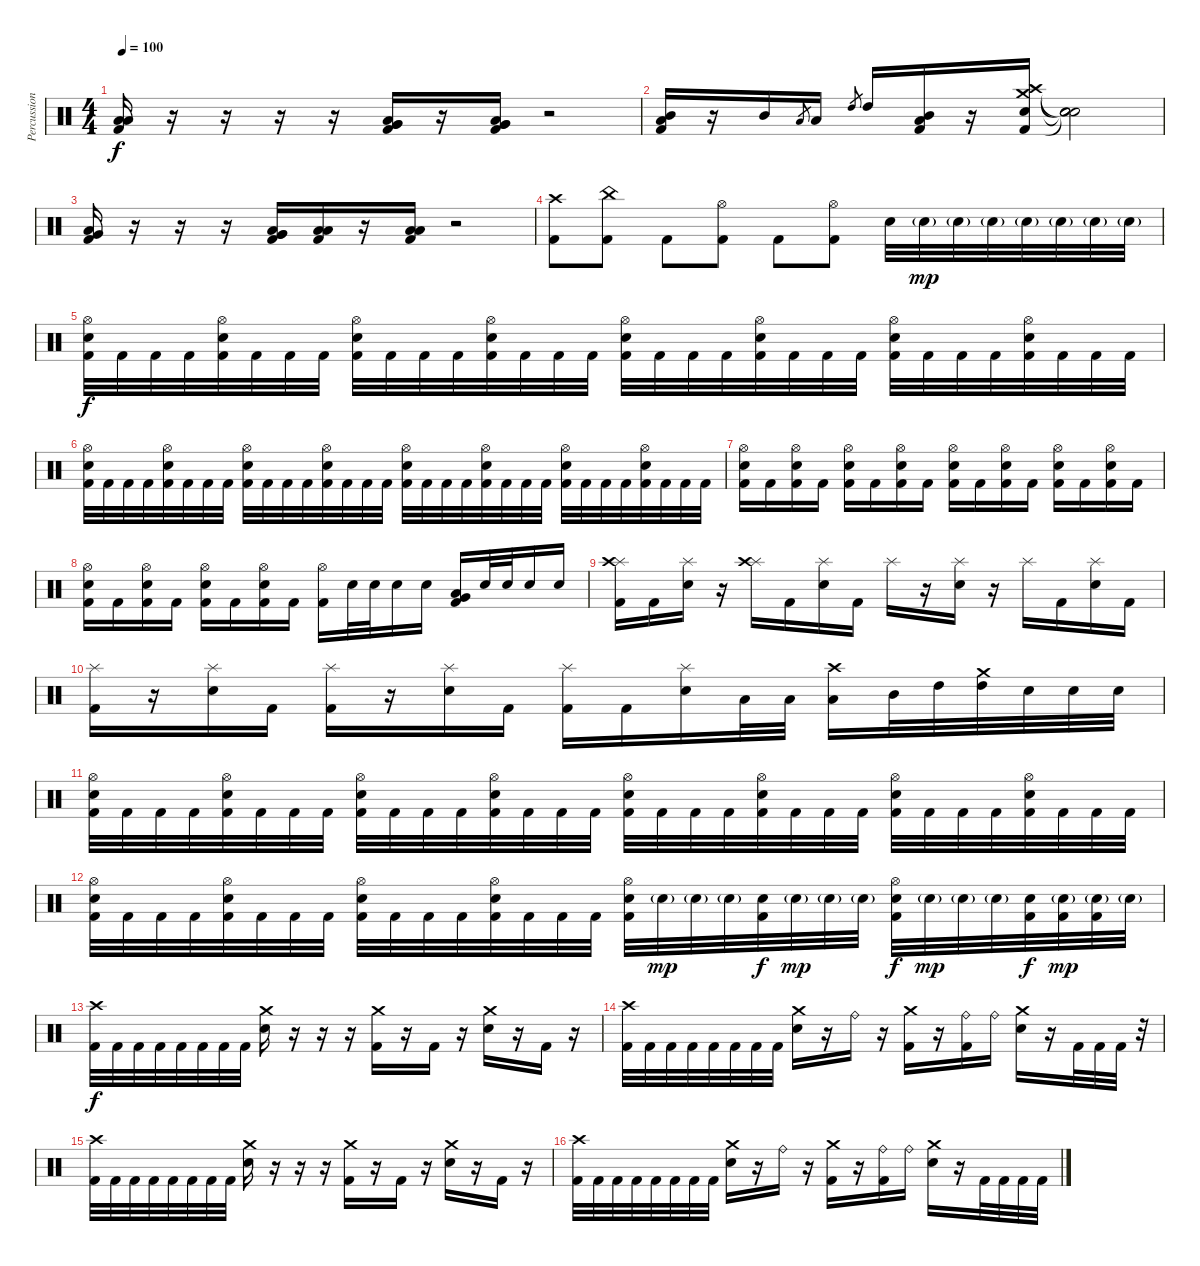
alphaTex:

\track ("Percussion" "Percussion") {instrument percussion}
\staff {score}
\articulation defaults
\ts (4 4)
\tempo 100
\clef neutral
\ks c
("Low Floor Tom (hit)" "Low Tom (hit)" "Kick (hit) 2").16{dy f} r.16 r.16 r.16 r.16 ("Very Low Tom (hit)" "Very Low Tom (hit)" "Low Tom (hit)" "Kick (hit) 2").16 r.16 ("Very Low Tom (hit)" "Very Low Tom (hit)" "Low Tom (hit)" "Kick (hit) 2").16 r.2 |
("Mid Tom (hit)" "Low Tom (hit)" "Kick (hit) 2").16 r.16 "Mid Tom (hit)".16 "Low Tom (hit)".8{gr} "Low Tom (hit)".16 "High Tom (hit)".8{gr} "High Tom (hit)".16 ("Mid Tom (hit)" "Low Tom (hit)" "Kick (hit) 2").16 r.16 ("Crash medium (hit)" "Crash high (hit)" "Electric Snare (hit)" "Kick (hit) 2").16 ("Snare (hit)"{t} "Snare (hit)"{t} "Snare (hit)"{t} "Snare (hit)"{t}).2 |
("Very Low Tom (hit)" "Low Tom (hit)" "Kick (hit) 2").16 r.16 r.16 r.16 ("Very Low Tom (hit)" "Very Low Tom (hit)" "Low Tom (hit)" "Kick (hit) 2").16 ("Low Floor Tom (hit)" "Low Tom (hit)" "Kick (hit) 2").16 r.16 ("Low Floor Tom (hit)" "Low Tom (hit)" "Kick (hit) 2").16 r.2 |
("Crash high (hit)" "Kick (hit) 2").8 ("China (hit)" "Kick (hit) 2").8 "Kick (hit) 2".8 ("Hi-Hat (open)" "Kick (hit) 2").8 "Kick (hit) 2".8 ("Hi-Hat (open)" "Kick (hit) 2").8 "Electric Snare (hit)".32 "Electric Snare (hit)"{g}.32{dy mp} "Electric Snare (hit)"{g}.32 "Electric Snare (hit)"{g}.32 "Electric Snare (hit)"{g}.32 "Electric Snare (hit)"{g}.32 "Electric Snare (hit)"{g}.32 "Electric Snare (hit)"{g}.32 |
("Hi-Hat (open)" "Electric Snare (hit)" "Kick (hit) 2").32{dy f} "Kick (hit) 2".32 "Kick (hit) 2".32 "Kick (hit) 2".32 ("Hi-Hat (open)" "Electric Snare (hit)" "Kick (hit) 2").32 "Kick (hit) 2".32 "Kick (hit) 2".32 "Kick (hit) 2".32 ("Hi-Hat (open)" "Electric Snare (hit)" "Kick (hit) 2").32 "Kick (hit) 2".32 "Kick (hit) 2".32 "Kick (hit) 2".32 ("Hi-Hat (open)" "Electric Snare (hit)" "Kick (hit) 2").32 "Kick (hit) 2".32 "Kick (hit) 2".32 "Kick (hit) 2".32 ("Hi-Hat (open)" "Electric Snare (hit)" "Kick (hit) 2").32 "Kick (hit) 2".32 "Kick (hit) 2".32 "Kick (hit) 2".32 ("Hi-Hat (open)" "Electric Snare (hit)" "Kick (hit) 2").32 "Kick (hit) 2".32 "Kick (hit) 2".32 "Kick (hit) 2".32 ("Hi-Hat (open)" "Electric Snare (hit)" "Kick (hit) 2").32 "Kick (hit) 2".32 "Kick (hit) 2".32 "Kick (hit) 2".32 ("Hi-Hat (open)" "Electric Snare (hit)" "Kick (hit) 2").32 "Kick (hit) 2".32 "Kick (hit) 2".32 "Kick (hit) 2".32 |
("Hi-Hat (open)" "Electric Snare (hit)" "Kick (hit) 2").32 "Kick (hit) 2".32 "Kick (hit) 2".32 "Kick (hit) 2".32 ("Hi-Hat (open)" "Electric Snare (hit)" "Kick (hit) 2").32 "Kick (hit) 2".32 "Kick (hit) 2".32 "Kick (hit) 2".32 ("Hi-Hat (open)" "Electric Snare (hit)" "Kick (hit) 2").32 "Kick (hit) 2".32 "Kick (hit) 2".32 "Kick (hit) 2".32 ("Hi-Hat (open)" "Electric Snare (hit)" "Kick (hit) 2").32 "Kick (hit) 2".32 "Kick (hit) 2".32 "Kick (hit) 2".32 ("Hi-Hat (open)" "Electric Snare (hit)" "Kick (hit) 2").32 "Kick (hit) 2".32 "Kick (hit) 2".32 "Kick (hit) 2".32 ("Hi-Hat (open)" "Electric Snare (hit)" "Kick (hit) 2").32 "Kick (hit) 2".32 "Kick (hit) 2".32 "Kick (hit) 2".32 ("Hi-Hat (open)" "Electric Snare (hit)" "Kick (hit) 2").32 "Kick (hit) 2".32 "Kick (hit) 2".32 "Kick (hit) 2".32 ("Hi-Hat (open)" "Electric Snare (hit)" "Kick (hit) 2").32 "Kick (hit) 2".32 "Kick (hit) 2".32 "Kick (hit) 2".32 |
("Hi-Hat (open)" "Electric Snare (hit)" "Kick (hit) 2").16 "Kick (hit) 2".16 ("Hi-Hat (open)" "Electric Snare (hit)" "Kick (hit) 2").16 "Kick (hit) 2".16 ("Hi-Hat (open)" "Electric Snare (hit)" "Kick (hit) 2").16 "Kick (hit) 2".16 ("Hi-Hat (open)" "Electric Snare (hit)" "Kick (hit) 2").16 "Kick (hit) 2".16 ("Hi-Hat (open)" "Electric Snare (hit)" "Kick (hit) 2").16 "Kick (hit) 2".16 ("Hi-Hat (open)" "Electric Snare (hit)" "Kick (hit) 2").16 "Kick (hit) 2".16 ("Hi-Hat (open)" "Electric Snare (hit)" "Kick (hit) 2").16 "Kick (hit) 2".16 ("Hi-Hat (open)" "Electric Snare (hit)" "Kick (hit) 2").16 "Kick (hit) 2".16 |
("Hi-Hat (open)" "Electric Snare (hit)" "Kick (hit) 2").16 "Kick (hit) 2".16 ("Hi-Hat (open)" "Electric Snare (hit)" "Kick (hit) 2").16 "Kick (hit) 2".16 ("Hi-Hat (open)" "Electric Snare (hit)" "Kick (hit) 2").16 "Kick (hit) 2".16 ("Hi-Hat (open)" "Electric Snare (hit)" "Kick (hit) 2").16 "Kick (hit) 2".16 ("Hi-Hat (open)" "Kick (hit) 2").16 "Electric Snare (hit)".32 "Electric Snare (hit)".32 "Electric Snare (hit)".16 "Electric Snare (hit)".16 ("Very Low Tom (hit)" "Low Tom (hit)" "Kick (hit) 2").16 "Electric Snare (hit)".32 "Electric Snare (hit)".32 "Electric Snare (hit)".16 "Electric Snare (hit)".16 |
("Splash (hit)" "Crash high (hit)" "Kick (hit) 2").16 "Kick (hit) 2".16 ("Splash (hit)" "Electric Snare (hit)").16 r.16 ("Splash (hit)" "Crash high (hit)").16 "Kick (hit) 2".16 ("Splash (hit)" "Electric Snare (hit)").16 "Kick (hit) 2".16 "Splash (hit)".16 r.16 ("Splash (hit)" "Electric Snare (hit)").16 r.16 "Splash (hit)".16 "Kick (hit) 2".16 ("Splash (hit)" "Electric Snare (hit)").16 "Kick (hit) 2".16 |
("Splash (hit)" "Kick (hit) 2").16 r.16 ("Splash (hit)" "Electric Snare (hit)").16 "Kick (hit) 2".16 ("Splash (hit)" "Kick (hit) 2").16 r.16 ("Splash (hit)" "Electric Snare (hit)").16 "Kick (hit) 2".16 ("Splash (hit)" "Kick (hit) 2").16 "Kick (hit) 2".16 ("Splash (hit)" "Electric Snare (hit)").16 "Low Tom (hit)".32 "Low Tom (hit)".32 ("Crash high (hit)" "Low Tom (hit)").16 "Mid Tom (hit)".32 "High Tom (hit)".32 ("Crash medium (hit)" "High Tom (hit)").32 "Electric Snare (hit)".32 "Electric Snare (hit)".32 "Electric Snare (hit)".32 |
("Hi-Hat (open)" "Electric Snare (hit)" "Kick (hit) 2").32 "Kick (hit) 2".32 "Kick (hit) 2".32 "Kick (hit) 2".32 ("Hi-Hat (open)" "Electric Snare (hit)" "Kick (hit) 2").32 "Kick (hit) 2".32 "Kick (hit) 2".32 "Kick (hit) 2".32 ("Hi-Hat (open)" "Electric Snare (hit)" "Kick (hit) 2").32 "Kick (hit) 2".32 "Kick (hit) 2".32 "Kick (hit) 2".32 ("Hi-Hat (open)" "Electric Snare (hit)" "Kick (hit) 2").32 "Kick (hit) 2".32 "Kick (hit) 2".32 "Kick (hit) 2".32 ("Hi-Hat (open)" "Electric Snare (hit)" "Kick (hit) 2").32 "Kick (hit) 2".32 "Kick (hit) 2".32 "Kick (hit) 2".32 ("Hi-Hat (open)" "Electric Snare (hit)" "Kick (hit) 2").32 "Kick (hit) 2".32 "Kick (hit) 2".32 "Kick (hit) 2".32 ("Hi-Hat (open)" "Electric Snare (hit)" "Kick (hit) 2").32 "Kick (hit) 2".32 "Kick (hit) 2".32 "Kick (hit) 2".32 ("Hi-Hat (open)" "Electric Snare (hit)" "Kick (hit) 2").32 "Kick (hit) 2".32 "Kick (hit) 2".32 "Kick (hit) 2".32 |
("Hi-Hat (open)" "Electric Snare (hit)" "Kick (hit) 2").32 "Kick (hit) 2".32 "Kick (hit) 2".32 "Kick (hit) 2".32 ("Hi-Hat (open)" "Electric Snare (hit)" "Kick (hit) 2").32 "Kick (hit) 2".32 "Kick (hit) 2".32 "Kick (hit) 2".32 ("Hi-Hat (open)" "Electric Snare (hit)" "Kick (hit) 2").32 "Kick (hit) 2".32 "Kick (hit) 2".32 "Kick (hit) 2".32 ("Hi-Hat (open)" "Electric Snare (hit)" "Kick (hit) 2").32 "Kick (hit) 2".32 "Kick (hit) 2".32 "Kick (hit) 2".32 ("Hi-Hat (open)" "Electric Snare (hit)" "Kick (hit) 2").32 "Electric Snare (hit)"{g}.32{dy mp} "Electric Snare (hit)"{g}.32 "Electric Snare (hit)"{g}.32 ("Electric Snare (hit)" "Kick (hit) 2").32{dy f} "Electric Snare (hit)"{g}.32{dy mp} "Electric Snare (hit)"{g}.32 "Electric Snare (hit)"{g}.32 ("Hi-Hat (open)" "Electric Snare (hit)" "Kick (hit) 2").32{dy f} "Electric Snare (hit)"{g}.32{dy mp} "Electric Snare (hit)"{g}.32 "Electric Snare (hit)"{g}.32 ("Electric Snare (hit)" "Kick (hit) 2").32{dy f} ("Electric Snare (hit)"{g} "Kick (hit) 2").32{dy mp} ("Electric Snare (hit)"{g} "Kick (hit) 2").32 "Electric Snare (hit)"{g}.32 |
("Crash high (hit)" "Kick (hit) 2").32{dy f} "Kick (hit) 2".32 "Kick (hit) 2".32 "Kick (hit) 2".32 "Kick (hit) 2".32 "Kick (hit) 2".32 "Kick (hit) 2".32 "Kick (hit) 2".32 ("Crash medium (hit)" "Electric Snare (hit)").16 r.16 r.16 r.16 ("Crash medium (hit)" "Kick (hit) 2").16 r.16 "Kick (hit) 2".16 r.16 ("Crash medium (hit)" "Electric Snare (hit)").16 r.16 "Kick (hit) 2".16 r.16 |
("Crash high (hit)" "Kick (hit) 2").32 "Kick (hit) 2".32 "Kick (hit) 2".32 "Kick (hit) 2".32 "Kick (hit) 2".32 "Kick (hit) 2".32 "Kick (hit) 2".32 "Kick (hit) 2".32 ("Crash medium (hit)" "Electric Snare (hit)").16 r.16 "Ride (bell)".16 r.16 ("Crash medium (hit)" "Kick (hit) 2").16 r.16 ("Ride (bell)" "Kick (hit) 2").16 "Ride (bell)".16 ("Crash medium (hit)" "Electric Snare (hit)").16 r.16 "Kick (hit) 2".32 "Kick (hit) 2".32 "Kick (hit) 2".32 r.32 |
("Crash high (hit)" "Kick (hit) 2").32 "Kick (hit) 2".32 "Kick (hit) 2".32 "Kick (hit) 2".32 "Kick (hit) 2".32 "Kick (hit) 2".32 "Kick (hit) 2".32 "Kick (hit) 2".32 ("Crash medium (hit)" "Electric Snare (hit)").16 r.16 r.16 r.16 ("Crash medium (hit)" "Kick (hit) 2").16 r.16 "Kick (hit) 2".16 r.16 ("Crash medium (hit)" "Electric Snare (hit)").16 r.16 "Kick (hit) 2".16 r.16 |
("Crash high (hit)" "Kick (hit) 2").32 "Kick (hit) 2".32 "Kick (hit) 2".32 "Kick (hit) 2".32 "Kick (hit) 2".32 "Kick (hit) 2".32 "Kick (hit) 2".32 "Kick (hit) 2".32 ("Crash medium (hit)" "Electric Snare (hit)").16 r.16 "Ride (bell)".16 r.16 ("Crash medium (hit)" "Kick (hit) 2").16 r.16 ("Ride (bell)" "Kick (hit) 2").16 "Ride (bell)".16 ("Crash medium (hit)" "Electric Snare (hit)").16 r.16 "Kick (hit) 2".32 "Kick (hit) 2".32 "Kick (hit) 2".32 "Kick (hit) 2".32
